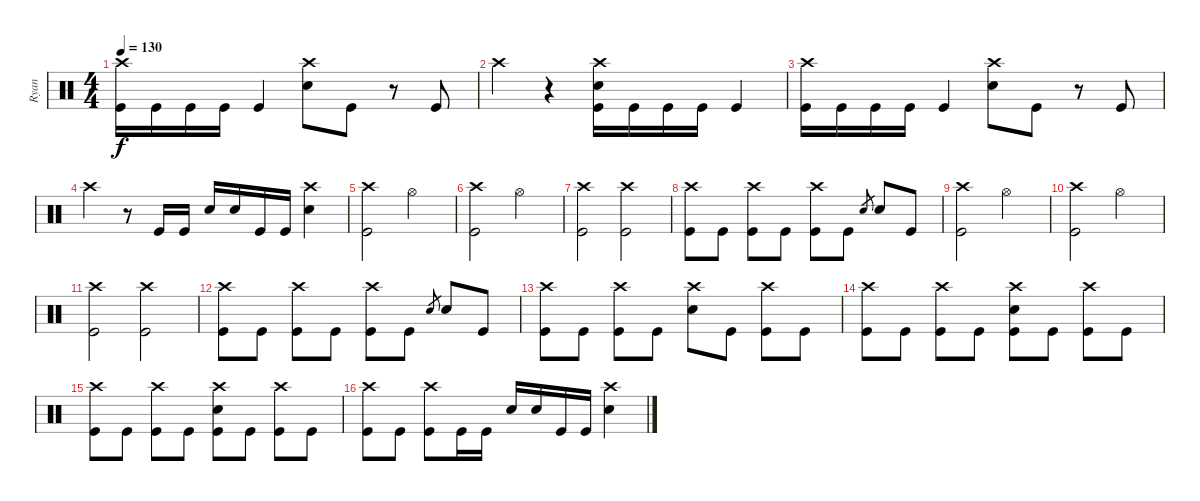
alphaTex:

\track ("Ryan" "Ryan") {instrument percussion}
\staff {score}
\articulation defaults
\ts (4 4)
\tempo 130
\clef neutral
\ks c
("Crash high (hit)" "Kick (hit)").16{dy f} "Kick (hit)".16 "Kick (hit)".16 "Kick (hit)".16 "Kick (hit)".4 ("Crash high (hit)" "Electric Snare (hit)").8 "Kick (hit)".8 r.8 "Kick (hit)".8 |
"Crash high (hit)".4 r.4 ("Crash high (hit)" "Electric Snare (hit)" "Kick (hit)").16 "Kick (hit)".16 "Kick (hit)".16 "Kick (hit)".16 "Kick (hit)".4 |
("Crash high (hit)" "Kick (hit)").16 "Kick (hit)".16 "Kick (hit)".16 "Kick (hit)".16 "Kick (hit)".4 ("Crash high (hit)" "Electric Snare (hit)").8 "Kick (hit)".8 r.8 "Kick (hit)".8 |
"Crash high (hit)".4 r.8 "Kick (hit)".16 "Kick (hit)".16 "Electric Snare (hit)".16 "Electric Snare (hit)".16 "Kick (hit)".16 "Kick (hit)".16 ("Crash high (hit)" "Electric Snare (hit)").4 |
("Crash high (hit)" "Kick (hit)").2 "Hi-Hat (open)".2 |
("Crash high (hit)" "Kick (hit)").2 "Hi-Hat (open)".2 |
("Crash high (hit)" "Kick (hit)").2 ("Crash high (hit)" "Kick (hit)").2 |
("Crash high (hit)" "Kick (hit)").8 "Kick (hit)".8 ("Crash high (hit)" "Kick (hit)").8 "Kick (hit)".8 ("Crash high (hit)" "Kick (hit)").8 "Kick (hit)".8 "Electric Snare (hit)".8{gr} "Electric Snare (hit)".8 "Kick (hit)".8 |
("Crash high (hit)" "Kick (hit)").2 "Hi-Hat (open)".2 |
("Crash high (hit)" "Kick (hit)").2 "Hi-Hat (open)".2 |
("Crash high (hit)" "Kick (hit)").2 ("Crash high (hit)" "Kick (hit)").2 |
("Crash high (hit)" "Kick (hit)").8 "Kick (hit)".8 ("Crash high (hit)" "Kick (hit)").8 "Kick (hit)".8 ("Crash high (hit)" "Kick (hit)").8 "Kick (hit)".8 "Electric Snare (hit)".8{gr} "Electric Snare (hit)".8 "Kick (hit)".8 |
("Crash high (hit)" "Kick (hit)").8 "Kick (hit)".8 ("Crash high (hit)" "Kick (hit)").8 "Kick (hit)".8 ("Crash high (hit)" "Electric Snare (hit)").8 "Kick (hit)".8 ("Crash high (hit)" "Kick (hit)").8 "Kick (hit)".8 |
("Crash high (hit)" "Kick (hit)").8 "Kick (hit)".8 ("Crash high (hit)" "Kick (hit)").8 "Kick (hit)".8 ("Crash high (hit)" "Electric Snare (hit)" "Kick (hit)").8 "Kick (hit)".8 ("Crash high (hit)" "Kick (hit)").8 "Kick (hit)".8 |
("Crash high (hit)" "Kick (hit)").8 "Kick (hit)".8 ("Crash high (hit)" "Kick (hit)").8 "Kick (hit)".8 ("Crash high (hit)" "Electric Snare (hit)" "Kick (hit)").8 "Kick (hit)".8 ("Crash high (hit)" "Kick (hit)").8 "Kick (hit)".8 |
("Crash high (hit)" "Kick (hit)").8 "Kick (hit)".8 ("Crash high (hit)" "Kick (hit)").8 "Kick (hit)".16 "Kick (hit)".16 "Electric Snare (hit)".16 "Electric Snare (hit)".16 "Kick (hit)".16 "Kick (hit)".16 ("Crash high (hit)" "Electric Snare (hit)").4
